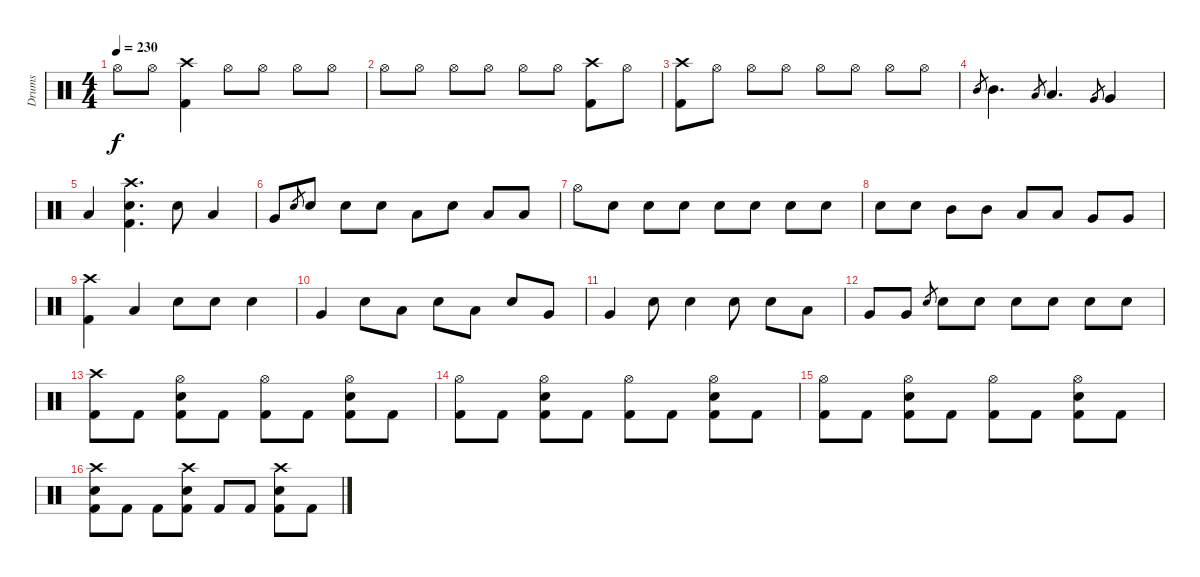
\track ("Drums" "Drums") {instrument percussion}
\staff {score}
\articulation defaults
\ts (4 4)
\tempo 230
\clef neutral
\ks c "Hi-Hat (open)".8{dy f} "Hi-Hat (open)".8
("Crash high (hit)" "Kick (hit) 2").4 "Hi-Hat (open)".8 "Hi-Hat (open)".8 "Hi-Hat (open)".8 "Hi-Hat (open)".8 |
"Hi-Hat (open)".8 "Hi-Hat (open)".8 "Hi-Hat (open)".8 "Hi-Hat (open)".8 "Hi-Hat (open)".8 "Hi-Hat (open)".8 ("Crash high (hit)" "Kick (hit) 2").8 "Hi-Hat (open)".8 |
("Crash high (hit)" "Kick (hit) 2").8 "Hi-Hat (open)".8 "Hi-Hat (open)".8 "Hi-Hat (open)".8 "Hi-Hat (open)".8 "Hi-Hat (open)".8 "Hi-Hat (open)".8 "Hi-Hat (open)".8 |
"Mid Tom (hit)".8{gr} "Mid Tom (hit)".4{d} "Low Tom (hit)".8{gr} "Low Tom (hit)".4{d} "Very Low Tom (hit)".8{gr} "Very Low Tom (hit)".4 |
"Low Tom (hit)".4 ("Crash high (hit)" "Electric Snare (hit)" "Kick (hit) 2").4{d} "Electric Snare (hit)".8 "Low Tom (hit)".4 |
"Very Low Tom (hit)".8 "Electric Snare (hit)".8{gr} "Electric Snare (hit)".8 "Electric Snare (hit)".8 "Electric Snare (hit)".8 "Low Tom (hit)".8 "Electric Snare (hit)".8 "Low Tom (hit)".8 "Low Tom (hit)".8 |
"Hi-Hat (open)".8 "Electric Snare (hit)".8 "Electric Snare (hit)".8 "Electric Snare (hit)".8 "Electric Snare (hit)".8 "Electric Snare (hit)".8 "Electric Snare (hit)".8 "Electric Snare (hit)".8 |
"Electric Snare (hit)".8 "Electric Snare (hit)".8 "Mid Tom (hit)".8 "Mid Tom (hit)".8 "Low Tom (hit)".8 "Low Tom (hit)".8 "Very Low Tom (hit)".8 "Very Low Tom (hit)".8 |
("Crash high (hit)" "Kick (hit) 2").4 "Low Tom (hit)".4 "Electric Snare (hit)".8 "Electric Snare (hit)".8 "Electric Snare (hit)".4 |
"Very Low Tom (hit)".4 "Electric Snare (hit)".8 "Low Tom (hit)".8 "Electric Snare (hit)".8 "Low Tom (hit)".8 "Electric Snare (hit)".8 "Very Low Tom (hit)".8 |
"Very Low Tom (hit)".4 "Electric Snare (hit)".8 "Electric Snare (hit)".4 "Electric Snare (hit)".8 "Electric Snare (hit)".8 "Low Tom (hit)".8 |
"Very Low Tom (hit)".8 "Very Low Tom (hit)".8 "Electric Snare (hit)".8{gr} "Electric Snare (hit)".8 "Electric Snare (hit)".8 "Electric Snare (hit)".8 "Electric Snare (hit)".8 "Electric Snare (hit)".8 "Electric Snare (hit)".8 |
("Crash high (hit)" "Kick (hit) 2").8 "Kick (hit) 2".8 ("Hi-Hat (open)" "Electric Snare (hit)" "Kick (hit) 2").8 "Kick (hit) 2".8 ("Hi-Hat (open)" "Kick (hit) 2").8 "Kick (hit) 2".8 ("Hi-Hat (open)" "Electric Snare (hit)" "Kick (hit) 2").8 "Kick (hit) 2".8 |
("Hi-Hat (open)" "Kick (hit) 2").8 "Kick (hit) 2".8 ("Hi-Hat (open)" "Electric Snare (hit)" "Kick (hit) 2").8 "Kick (hit) 2".8 ("Hi-Hat (open)" "Kick (hit) 2").8 "Kick (hit) 2".8 ("Hi-Hat (open)" "Electric Snare (hit)" "Kick (hit) 2").8 "Kick (hit) 2".8 |
("Hi-Hat (open)" "Kick (hit) 2").8 "Kick (hit) 2".8 ("Hi-Hat (open)" "Electric Snare (hit)" "Kick (hit) 2").8 "Kick (hit) 2".8 ("Hi-Hat (open)" "Kick (hit) 2").8 "Kick (hit) 2".8 ("Hi-Hat (open)" "Electric Snare (hit)" "Kick (hit) 2").8 "Kick (hit) 2".8 |
("Crash high (hit)" "Electric Snare (hit)" "Kick (hit) 2").8 "Kick (hit) 2".8 "Kick (hit) 2".8 ("Crash high (hit)" "Electric Snare (hit)" "Kick (hit) 2").8 "Kick (hit) 2".8 "Kick (hit) 2".8 ("Crash high (hit)" "Electric Snare (hit)" "Kick (hit) 2").8 "Kick (hit) 2".8
